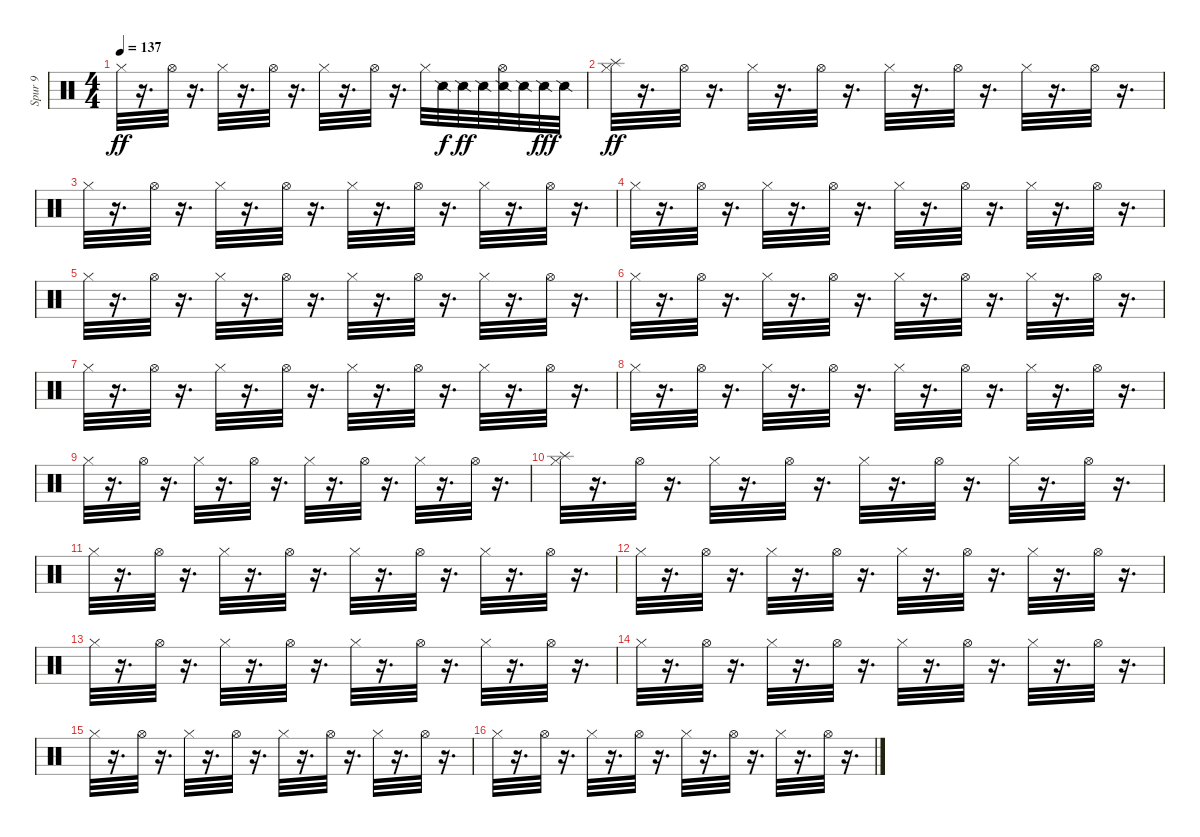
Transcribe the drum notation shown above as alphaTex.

\track ("Spur 9" "Spur 9") {instrument percussion}
\staff {score}
\articulation defaults
\ts (4 4)
\tempo 137
\clef neutral
\ks c "Hi-Hat (closed)".32{dy ff}
r.16{d} "Hi-Hat (open)".32 r.16{d} "Hi-Hat (closed)".32 r.16{d} "Hi-Hat (open)".32 r.16{d} "Hi-Hat (closed)".32 r.16{d} "Hi-Hat (open)".32 r.16{d} "Hi-Hat (closed)".32 "Snare (side stick) 2".32{dy f} "Snare (side stick) 2".32{dy ff} "Snare (side stick) 2".32 ("Snare (side stick) 2" "Hi-Hat (open)").32 "Snare (side stick) 2".32 "Snare (side stick) 2".32{dy fff} "Snare (side stick) 2".32 |
("Splash (hit)" "Hi-Hat (closed)").32{dy ff} r.16{d} "Hi-Hat (open)".32 r.16{d} "Hi-Hat (closed)".32 r.16{d} "Hi-Hat (open)".32 r.16{d} "Hi-Hat (closed)".32 r.16{d} "Hi-Hat (open)".32 r.16{d} "Hi-Hat (closed)".32 r.16{d} "Hi-Hat (open)".32 r.16{d} |
"Hi-Hat (closed)".32 r.16{d} "Hi-Hat (open)".32 r.16{d} "Hi-Hat (closed)".32 r.16{d} "Hi-Hat (open)".32 r.16{d} "Hi-Hat (closed)".32 r.16{d} "Hi-Hat (open)".32 r.16{d} "Hi-Hat (closed)".32 r.16{d} "Hi-Hat (open)".32 r.16{d} |
"Hi-Hat (closed)".32 r.16{d} "Hi-Hat (open)".32 r.16{d} "Hi-Hat (closed)".32 r.16{d} "Hi-Hat (open)".32 r.16{d} "Hi-Hat (closed)".32 r.16{d} "Hi-Hat (open)".32 r.16{d} "Hi-Hat (closed)".32 r.16{d} "Hi-Hat (open)".32 r.16{d} |
"Hi-Hat (closed)".32 r.16{d} "Hi-Hat (open)".32 r.16{d} "Hi-Hat (closed)".32 r.16{d} "Hi-Hat (open)".32 r.16{d} "Hi-Hat (closed)".32 r.16{d} "Hi-Hat (open)".32 r.16{d} "Hi-Hat (closed)".32 r.16{d} "Hi-Hat (open)".32 r.16{d} |
"Hi-Hat (closed)".32 r.16{d} "Hi-Hat (open)".32 r.16{d} "Hi-Hat (closed)".32 r.16{d} "Hi-Hat (open)".32 r.16{d} "Hi-Hat (closed)".32 r.16{d} "Hi-Hat (open)".32 r.16{d} "Hi-Hat (closed)".32 r.16{d} "Hi-Hat (open)".32 r.16{d} |
"Hi-Hat (closed)".32 r.16{d} "Hi-Hat (open)".32 r.16{d} "Hi-Hat (closed)".32 r.16{d} "Hi-Hat (open)".32 r.16{d} "Hi-Hat (closed)".32 r.16{d} "Hi-Hat (open)".32 r.16{d} "Hi-Hat (closed)".32 r.16{d} "Hi-Hat (open)".32 r.16{d} |
"Hi-Hat (closed)".32 r.16{d} "Hi-Hat (open)".32 r.16{d} "Hi-Hat (closed)".32 r.16{d} "Hi-Hat (open)".32 r.16{d} "Hi-Hat (closed)".32 r.16{d} "Hi-Hat (open)".32 r.16{d} "Hi-Hat (closed)".32 r.16{d} "Hi-Hat (open)".32 r.16{d} |
"Hi-Hat (closed)".32 r.16{d} "Hi-Hat (open)".32 r.16{d} "Hi-Hat (closed)".32 r.16{d} "Hi-Hat (open)".32 r.16{d} "Hi-Hat (closed)".32 r.16{d} "Hi-Hat (open)".32 r.16{d} "Hi-Hat (closed)".32 r.16{d} "Hi-Hat (open)".32 r.16{d} |
("Splash (hit)" "Hi-Hat (closed)").32 r.16{d} "Hi-Hat (open)".32 r.16{d} "Hi-Hat (closed)".32 r.16{d} "Hi-Hat (open)".32 r.16{d} "Hi-Hat (closed)".32 r.16{d} "Hi-Hat (open)".32 r.16{d} "Hi-Hat (closed)".32 r.16{d} "Hi-Hat (open)".32 r.16{d} |
"Hi-Hat (closed)".32 r.16{d} "Hi-Hat (open)".32 r.16{d} "Hi-Hat (closed)".32 r.16{d} "Hi-Hat (open)".32 r.16{d} "Hi-Hat (closed)".32 r.16{d} "Hi-Hat (open)".32 r.16{d} "Hi-Hat (closed)".32 r.16{d} "Hi-Hat (open)".32 r.16{d} |
"Hi-Hat (closed)".32 r.16{d} "Hi-Hat (open)".32 r.16{d} "Hi-Hat (closed)".32 r.16{d} "Hi-Hat (open)".32 r.16{d} "Hi-Hat (closed)".32 r.16{d} "Hi-Hat (open)".32 r.16{d} "Hi-Hat (closed)".32 r.16{d} "Hi-Hat (open)".32 r.16{d} |
"Hi-Hat (closed)".32 r.16{d} "Hi-Hat (open)".32 r.16{d} "Hi-Hat (closed)".32 r.16{d} "Hi-Hat (open)".32 r.16{d} "Hi-Hat (closed)".32 r.16{d} "Hi-Hat (open)".32 r.16{d} "Hi-Hat (closed)".32 r.16{d} "Hi-Hat (open)".32 r.16{d} |
"Hi-Hat (closed)".32 r.16{d} "Hi-Hat (open)".32 r.16{d} "Hi-Hat (closed)".32 r.16{d} "Hi-Hat (open)".32 r.16{d} "Hi-Hat (closed)".32 r.16{d} "Hi-Hat (open)".32 r.16{d} "Hi-Hat (closed)".32 r.16{d} "Hi-Hat (open)".32 r.16{d} |
"Hi-Hat (closed)".32 r.16{d} "Hi-Hat (open)".32 r.16{d} "Hi-Hat (closed)".32 r.16{d} "Hi-Hat (open)".32 r.16{d} "Hi-Hat (closed)".32 r.16{d} "Hi-Hat (open)".32 r.16{d} "Hi-Hat (closed)".32 r.16{d} "Hi-Hat (open)".32 r.16{d} |
"Hi-Hat (closed)".32 r.16{d} "Hi-Hat (open)".32 r.16{d} "Hi-Hat (closed)".32 r.16{d} "Hi-Hat (open)".32 r.16{d} "Hi-Hat (closed)".32 r.16{d} "Hi-Hat (open)".32 r.16{d} "Hi-Hat (closed)".32 r.16{d} "Hi-Hat (open)".32 r.16{d}
